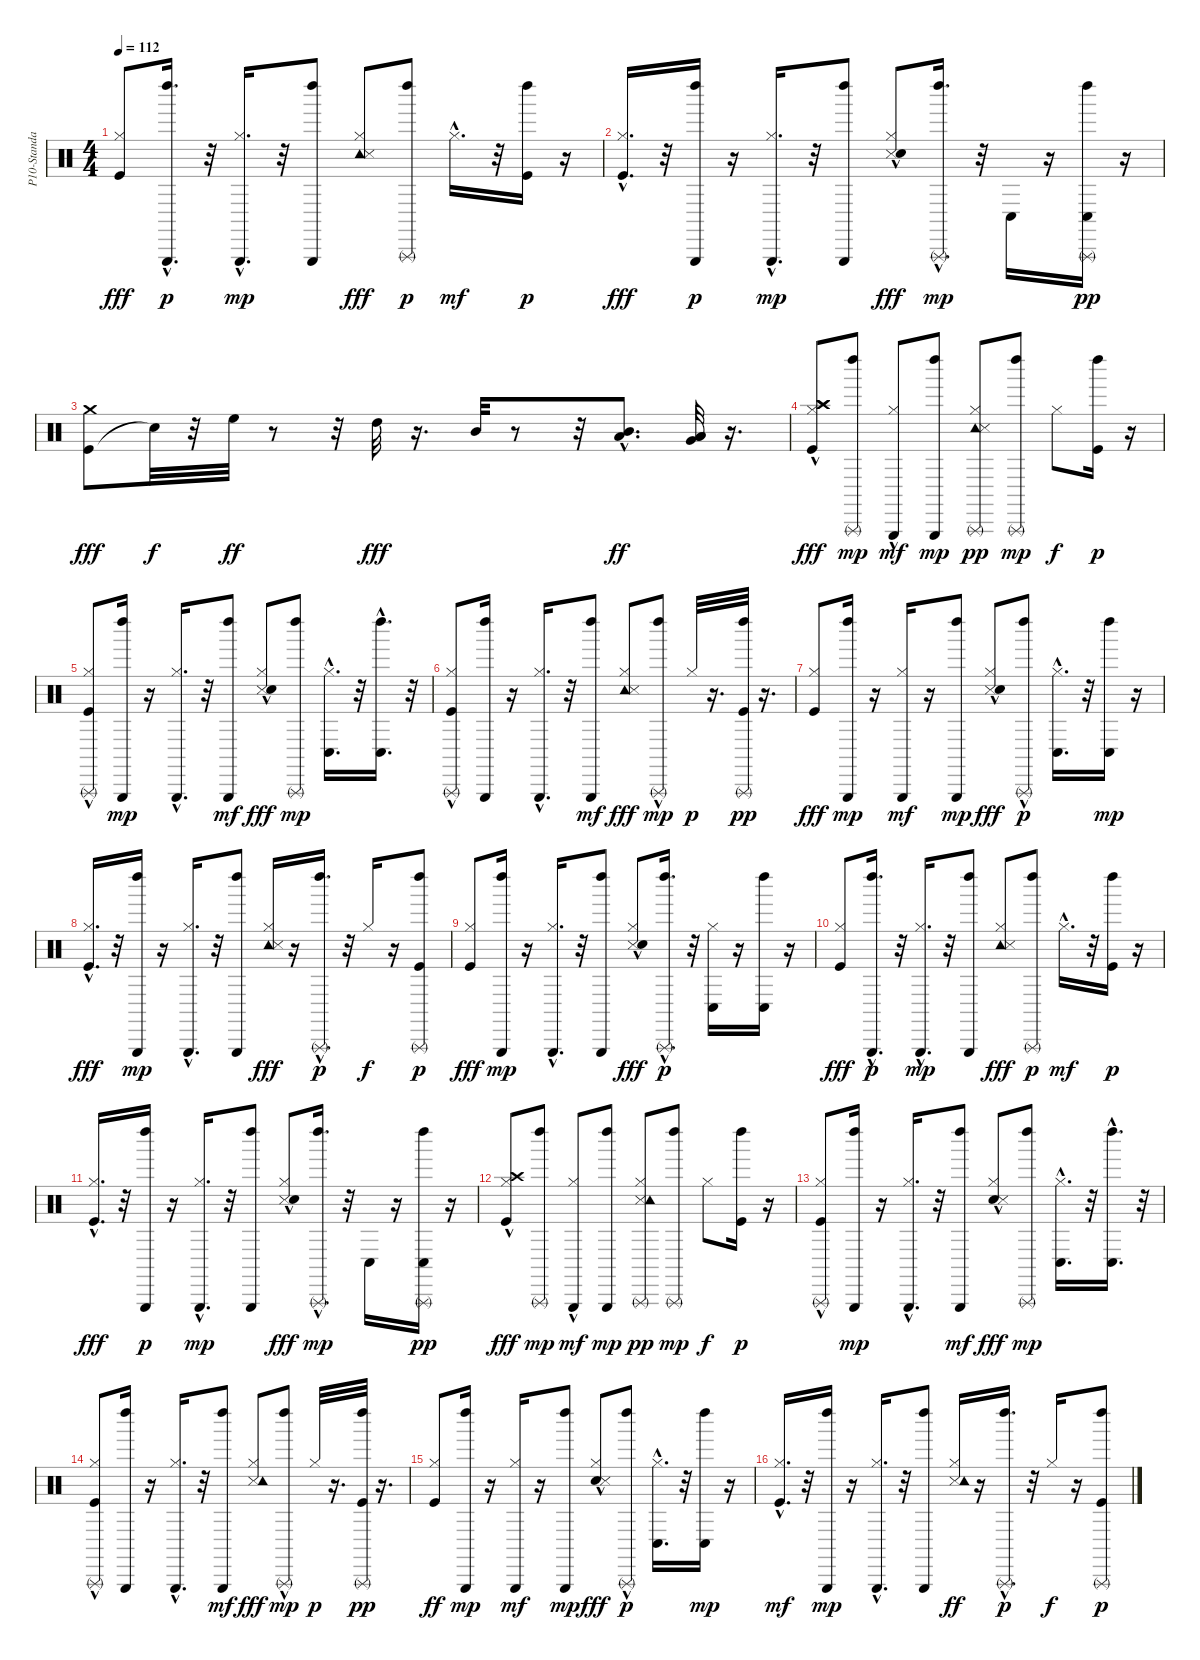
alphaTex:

\track ("P10-Standard Kit" "P10-Standa") {instrument percussion}
\staff {score}
\articulation defaults
\ts (4 4)
\tempo 112
\clef neutral
\ks c
("Hi-Hat (closed)" "Kick (hit)").8{dy fff} ("Triangle (hit)"{hac} "Left Maraca (hit)").16{d dy p} r.32 ("Hi-Hat (closed)" "Triangle (hit)"{hac}).16{d dy mp} r.32 ("Left Maraca (hit)" "Triangle (hit)").8 ("Hi-Hat (closed)" "Tambourine (hit)" "Snare (side stick) 3").8{dy fff} ("Triangle (rnute)" "Left Maraca (hit)").8{dy p} "Hi-Hat (closed)"{hac}.16{d dy mf} r.32 ("Kick (hit)" "Left Maraca (hit)").16{dy p} r.16 |
("Hi-Hat (closed)" "Kick (hit)"{hac}).16{d dy fff} r.32 ("Triangle (hit)" "Left Maraca (hit)").16{dy p} r.16 ("Hi-Hat (closed)" "Triangle (hit)"{hac}).16{d dy mp} r.32 ("Triangle (hit)" "Left Maraca (hit)").8 ("Hi-Hat (closed)" "Snare (side stick) 3"{hac} "Snare (hit)").8{dy fff} ("Triangle (rnute)"{hac} "Left Maraca (hit)").16{d dy mp} r.32 "Conga low (hit)".16 r.16 ("Triangle (rnute)" "Left Maraca (hit)" "Conga low (hit)").16{dy pp} r.16 |
("Kick (hit)" "Crash medium (hit)").8{dy fff} "Snare (hit)"{t}.32{dy f} r.32 "High Floor Tom (hit)".32{dy ff} r.8 r.32 "High Tom (hit)".32{dy fff} r.16{d} "Mid Tom (hit)".32 r.8 r.32 ("Low Tom (hit)"{hac} "Mid Tom (hit)").8{d dy ff} ("Low Tom (hit)" "Low Floor Tom (hit)" "Very Low Tom (hit)").32 r.16{d} |
("Crash high (hit)" "Crash high (hit)" "Hi-Hat (closed)" "Kick (hit)"{hac}).8{dy fff} ("Left Maraca (hit)" "Triangle (rnute)").8{dy mp} ("Hi-Hat (closed)" "Triangle (hit)"{hac}).8{dy mf} ("Triangle (hit)" "Left Maraca (hit)").8{dy mp} ("Hi-Hat (closed)" "Tambourine (hit)" "Snare (side stick) 3" "Triangle (rnute)").8{dy pp} ("Left Maraca (hit)" "Triangle (rnute)").8{dy mp} "Hi-Hat (closed)".8{dy f} ("Kick (hit)" "Left Maraca (hit)").16{dy p} r.16 |
("Hi-Hat (closed)" "Kick (hit)"{hac} "Triangle (rnute)").8 ("Left Maraca (hit)" "Triangle (hit)").16{dy mp} r.16 ("Hi-Hat (closed)"{hac} "Triangle (hit)"{hac}).16{d} r.32 ("Left Maraca (hit)" "Triangle (hit)").8{dy mf} ("Hi-Hat (closed)" "Snare (side stick) 3"{hac} "Snare (hit)").8{dy fff} ("Triangle (rnute)" "Left Maraca (hit)").8{dy mp} ("Hi-Hat (closed)"{hac} "Conga low (hit)").16{d} r.32 ("Left Maraca (hit)" "Conga low (hit)"{hac}).16{d} r.32 |
("Hi-Hat (closed)"{hac} "Kick (hit)"{hac} "Triangle (rnute)").8 ("Left Maraca (hit)" "Triangle (hit)").16 r.16 ("Hi-Hat (closed)"{hac} "Triangle (hit)"{hac}).16{d} r.32 ("Left Maraca (hit)" "Triangle (hit)").8{dy mf} ("Tambourine (hit)" "Hi-Hat (closed)" "Snare (side stick) 3").8{dy fff} ("Triangle (rnute)"{hac} "Left Maraca (hit)").8{dy mp} "Hi-Hat (closed)".32{dy p} r.16{d} ("Kick (hit)" "Left Maraca (hit)" "Triangle (rnute)").32{dy pp} r.16{d} |
("Hi-Hat (closed)" "Kick (hit)").8{dy fff} ("Left Maraca (hit)" "Triangle (hit)").16{dy mp} r.16 ("Hi-Hat (closed)" "Triangle (hit)").16{dy mf} r.16 ("Left Maraca (hit)" "Triangle (hit)").8{dy mp} ("Snare (side stick) 3" "Hi-Hat (closed)"{hac} "Snare (hit)").8{dy fff} ("Left Maraca (hit)" "Triangle (rnute)"{hac}).8{dy p} ("Hi-Hat (closed)"{hac} "Conga low (hit)").16{d} r.32 ("Left Maraca (hit)" "Conga low (hit)").16{dy mp} r.16 |
("Hi-Hat (closed)" "Kick (hit)"{hac}).16{d dy fff} r.32 ("Left Maraca (hit)" "Triangle (hit)").16{dy mp} r.16 ("Hi-Hat (closed)" "Triangle (hit)"{hac}).16{d} r.32 ("Left Maraca (hit)" "Triangle (hit)").8 ("Hi-Hat (closed)" "Tambourine (hit)" "Snare (side stick) 3").16{dy fff} r.16 ("Triangle (rnute)"{hac} "Left Maraca (hit)").16{d dy p} r.32 "Hi-Hat (closed)".16{dy f} r.16 ("Kick (hit)" "Left Maraca (hit)" "Triangle (rnute)").8{dy p} |
("Hi-Hat (closed)" "Kick (hit)").8{dy fff} ("Left Maraca (hit)" "Triangle (hit)").16{dy mp} r.16 ("Hi-Hat (closed)" "Triangle (hit)"{hac}).16{d} r.32 ("Left Maraca (hit)" "Triangle (hit)").8 ("Hi-Hat (closed)" "Snare (side stick) 3" "Snare (hit)"{hac}).8{dy fff} ("Left Maraca (hit)" "Triangle (rnute)"{hac}).16{d dy p} r.32 ("Hi-Hat (closed)" "Conga low (hit)").16 r.16 ("Left Maraca (hit)" "Conga low (hit)").16 r.16 |
("Hi-Hat (closed)" "Kick (hit)").8{dy fff} ("Triangle (hit)"{hac} "Left Maraca (hit)").16{d dy p} r.32 ("Hi-Hat (closed)" "Triangle (hit)"{hac}).16{d dy mp} r.32 ("Left Maraca (hit)" "Triangle (hit)").8 ("Hi-Hat (closed)" "Tambourine (hit)" "Snare (side stick) 3").8{dy fff} ("Triangle (rnute)" "Left Maraca (hit)").8{dy p} "Hi-Hat (closed)"{hac}.16{d dy mf} r.32 ("Kick (hit)" "Left Maraca (hit)").16{dy p} r.16 |
("Hi-Hat (closed)" "Kick (hit)"{hac}).16{d dy fff} r.32 ("Triangle (hit)" "Left Maraca (hit)").16{dy p} r.16 ("Hi-Hat (closed)" "Triangle (hit)"{hac}).16{d dy mp} r.32 ("Triangle (hit)" "Left Maraca (hit)").8 ("Hi-Hat (closed)" "Snare (side stick) 3"{hac} "Snare (hit)").8{dy fff} ("Triangle (rnute)"{hac} "Left Maraca (hit)").16{d dy mp} r.32 "Conga low (hit)".16 r.16 ("Triangle (rnute)" "Left Maraca (hit)" "Conga low (hit)").16{dy pp} r.16 |
("Kick (hit)"{hac} "Hi-Hat (closed)" "Crash high (hit)").8{dy fff} ("Left Maraca (hit)" "Triangle (rnute)").8{dy mp} ("Hi-Hat (closed)" "Triangle (hit)"{hac}).8{dy mf} ("Triangle (hit)" "Left Maraca (hit)").8{dy mp} ("Snare (side stick) 3" "Hi-Hat (closed)" "Tambourine (hit)" "Triangle (rnute)").8{dy pp} ("Left Maraca (hit)" "Triangle (rnute)").8{dy mp} "Hi-Hat (closed)".8{dy f} ("Kick (hit)" "Left Maraca (hit)").16{dy p} r.16 |
("Kick (hit)"{hac} "Hi-Hat (closed)" "Triangle (rnute)").8 ("Left Maraca (hit)" "Triangle (hit)").16{dy mp} r.16 ("Hi-Hat (closed)"{hac} "Triangle (hit)"{hac}).16{d} r.32 ("Left Maraca (hit)" "Triangle (hit)").8{dy mf} ("Snare (hit)" "Hi-Hat (closed)" "Snare (side stick) 3"{hac}).8{dy fff} ("Triangle (rnute)" "Left Maraca (hit)").8{dy mp} ("Hi-Hat (closed)"{hac} "Conga low (hit)").16{d} r.32 ("Left Maraca (hit)" "Conga low (hit)"{hac}).16{d} r.32 |
("Kick (hit)"{hac} "Hi-Hat (closed)"{hac} "Triangle (rnute)").8 ("Left Maraca (hit)" "Triangle (hit)").16 r.16 ("Hi-Hat (closed)"{hac} "Triangle (hit)"{hac}).16{d} r.32 ("Left Maraca (hit)" "Triangle (hit)").8{dy mf} ("Snare (side stick) 3" "Tambourine (hit)" "Hi-Hat (closed)").8{dy fff} ("Triangle (rnute)"{hac} "Left Maraca (hit)").8{dy mp} "Hi-Hat (closed)".32{dy p} r.16{d} ("Kick (hit)" "Left Maraca (hit)" "Triangle (rnute)").32{dy pp} r.16{d} |
("Kick (hit)" "Hi-Hat (closed)").8{dy ff} ("Left Maraca (hit)" "Triangle (hit)").16{dy mp} r.16 ("Hi-Hat (closed)" "Triangle (hit)").16{dy mf} r.16 ("Left Maraca (hit)" "Triangle (hit)").8{dy mp} ("Snare (hit)" "Snare (side stick) 3" "Hi-Hat (closed)"{hac}).8{dy fff} ("Left Maraca (hit)" "Triangle (rnute)"{hac}).8{dy p} ("Hi-Hat (closed)"{hac} "Conga low (hit)").16{d} r.32 ("Left Maraca (hit)" "Conga low (hit)").16{dy mp} r.16 |
("Kick (hit)"{hac} "Hi-Hat (closed)").16{d dy mf} r.32 ("Left Maraca (hit)" "Triangle (hit)").16{dy mp} r.16 ("Hi-Hat (closed)" "Triangle (hit)"{hac}).16{d} r.32 ("Left Maraca (hit)" "Triangle (hit)").8 ("Snare (side stick) 3" "Hi-Hat (closed)" "Tambourine (hit)").16{dy ff} r.16 ("Triangle (rnute)"{hac} "Left Maraca (hit)").16{d dy p} r.32 "Hi-Hat (closed)".16{dy f} r.16 ("Kick (hit)" "Left Maraca (hit)" "Triangle (rnute)").8{dy p}
